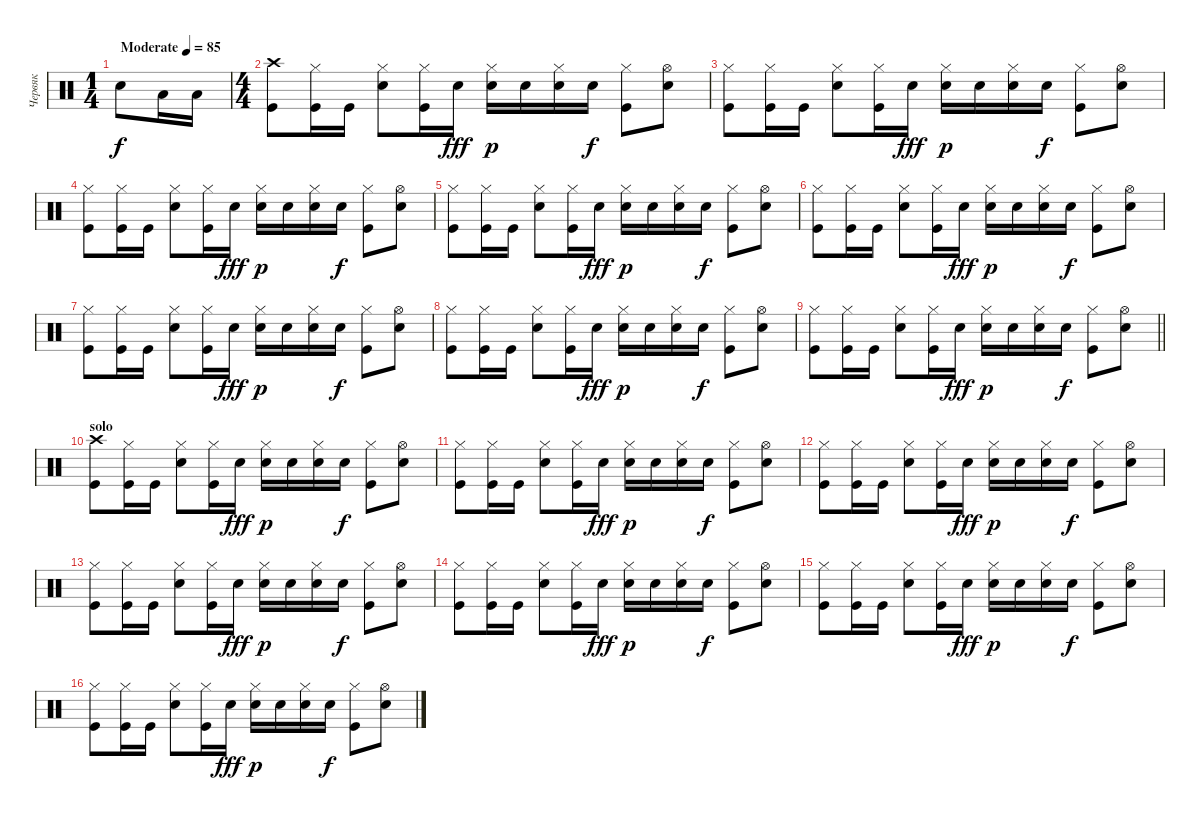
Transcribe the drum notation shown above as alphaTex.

\track ("Червяк" "Червяк") {instrument percussion}
\staff {score}
\articulation defaults
\ts (1 4)
\tempo (85 "Moderate")
\clef neutral
\ks c "Electric Snare (hit)".8{dy f} "Low Tom (hit)".16 "Low Tom (hit)".16
|
\ts (4 4)
("Crash high (hit)" "Kick (hit)").8 ("Hi-Hat (closed)" "Kick (hit)").16 "Kick (hit)".16 ("Hi-Hat (closed)" "Electric Snare (hit)").8 ("Hi-Hat (closed)" "Kick (hit)").16 "Snare (hit) 2".16{dy fff} ("Hi-Hat (closed)" "Snare (hit) 2").16{dy p} "Snare (hit) 2".16 ("Hi-Hat (closed)" "Snare (hit) 2").16 "Snare (hit) 2".16{dy f} ("Hi-Hat (closed)" "Kick (hit)").8 ("Hi-Hat (open)" "Electric Snare (hit)").8 |
("Hi-Hat (closed)" "Kick (hit)").8 ("Hi-Hat (closed)" "Kick (hit)").16 "Kick (hit)".16 ("Hi-Hat (closed)" "Electric Snare (hit)").8 ("Hi-Hat (closed)" "Kick (hit)").16 "Snare (hit) 2".16{dy fff} ("Hi-Hat (closed)" "Snare (hit) 2").16{dy p} "Snare (hit) 2".16 ("Hi-Hat (closed)" "Snare (hit) 2").16 "Snare (hit) 2".16{dy f} ("Hi-Hat (closed)" "Kick (hit)").8 ("Hi-Hat (open)" "Electric Snare (hit)").8 |
("Hi-Hat (closed)" "Kick (hit)").8 ("Hi-Hat (closed)" "Kick (hit)").16 "Kick (hit)".16 ("Hi-Hat (closed)" "Electric Snare (hit)").8 ("Hi-Hat (closed)" "Kick (hit)").16 "Snare (hit) 2".16{dy fff} ("Hi-Hat (closed)" "Snare (hit) 2").16{dy p} "Snare (hit) 2".16 ("Hi-Hat (closed)" "Snare (hit) 2").16 "Snare (hit) 2".16{dy f} ("Hi-Hat (closed)" "Kick (hit)").8 ("Hi-Hat (open)" "Electric Snare (hit)").8 |
("Hi-Hat (closed)" "Kick (hit)").8 ("Hi-Hat (closed)" "Kick (hit)").16 "Kick (hit)".16 ("Hi-Hat (closed)" "Electric Snare (hit)").8 ("Hi-Hat (closed)" "Kick (hit)").16 "Snare (hit) 2".16{dy fff} ("Hi-Hat (closed)" "Snare (hit) 2").16{dy p} "Snare (hit) 2".16 ("Hi-Hat (closed)" "Snare (hit) 2").16 "Snare (hit) 2".16{dy f} ("Hi-Hat (closed)" "Kick (hit)").8 ("Hi-Hat (open)" "Electric Snare (hit)").8 |
("Hi-Hat (closed)" "Kick (hit)").8 ("Hi-Hat (closed)" "Kick (hit)").16 "Kick (hit)".16 ("Hi-Hat (closed)" "Electric Snare (hit)").8 ("Hi-Hat (closed)" "Kick (hit)").16 "Snare (hit) 2".16{dy fff} ("Hi-Hat (closed)" "Snare (hit) 2").16{dy p} "Snare (hit) 2".16 ("Hi-Hat (closed)" "Snare (hit) 2").16 "Snare (hit) 2".16{dy f} ("Hi-Hat (closed)" "Kick (hit)").8 ("Hi-Hat (open)" "Electric Snare (hit)").8 |
("Hi-Hat (closed)" "Kick (hit)").8 ("Hi-Hat (closed)" "Kick (hit)").16 "Kick (hit)".16 ("Hi-Hat (closed)" "Electric Snare (hit)").8 ("Hi-Hat (closed)" "Kick (hit)").16 "Snare (hit) 2".16{dy fff} ("Hi-Hat (closed)" "Snare (hit) 2").16{dy p} "Snare (hit) 2".16 ("Hi-Hat (closed)" "Snare (hit) 2").16 "Snare (hit) 2".16{dy f} ("Hi-Hat (closed)" "Kick (hit)").8 ("Hi-Hat (open)" "Electric Snare (hit)").8 |
("Hi-Hat (closed)" "Kick (hit)").8 ("Hi-Hat (closed)" "Kick (hit)").16 "Kick (hit)".16 ("Hi-Hat (closed)" "Electric Snare (hit)").8 ("Hi-Hat (closed)" "Kick (hit)").16 "Snare (hit) 2".16{dy fff} ("Hi-Hat (closed)" "Snare (hit) 2").16{dy p} "Snare (hit) 2".16 ("Hi-Hat (closed)" "Snare (hit) 2").16 "Snare (hit) 2".16{dy f} ("Hi-Hat (closed)" "Kick (hit)").8 ("Hi-Hat (open)" "Electric Snare (hit)").8 |
\barLineRight lightlight
("Hi-Hat (closed)" "Kick (hit)").8 ("Hi-Hat (closed)" "Kick (hit)").16 "Kick (hit)".16 ("Hi-Hat (closed)" "Electric Snare (hit)").8 ("Hi-Hat (closed)" "Kick (hit)").16 "Snare (hit) 2".16{dy fff} ("Hi-Hat (closed)" "Snare (hit) 2").16{dy p} "Snare (hit) 2".16 ("Hi-Hat (closed)" "Snare (hit) 2").16 "Snare (hit) 2".16{dy f} ("Hi-Hat (closed)" "Kick (hit)").8 ("Hi-Hat (open)" "Electric Snare (hit)").8 |
\section ("" "solo")
("Crash high (hit)" "Kick (hit)").8 ("Hi-Hat (closed)" "Kick (hit)").16 "Kick (hit)".16 ("Hi-Hat (closed)" "Electric Snare (hit)").8 ("Hi-Hat (closed)" "Kick (hit)").16 "Snare (hit) 2".16{dy fff} ("Hi-Hat (closed)" "Snare (hit) 2").16{dy p} "Snare (hit) 2".16 ("Hi-Hat (closed)" "Snare (hit) 2").16 "Snare (hit) 2".16{dy f} ("Hi-Hat (closed)" "Kick (hit)").8 ("Hi-Hat (open)" "Electric Snare (hit)").8 |
("Hi-Hat (closed)" "Kick (hit)").8 ("Hi-Hat (closed)" "Kick (hit)").16 "Kick (hit)".16 ("Hi-Hat (closed)" "Electric Snare (hit)").8 ("Hi-Hat (closed)" "Kick (hit)").16 "Snare (hit) 2".16{dy fff} ("Hi-Hat (closed)" "Snare (hit) 2").16{dy p} "Snare (hit) 2".16 ("Hi-Hat (closed)" "Snare (hit) 2").16 "Snare (hit) 2".16{dy f} ("Hi-Hat (closed)" "Kick (hit)").8 ("Hi-Hat (open)" "Electric Snare (hit)").8 |
("Hi-Hat (closed)" "Kick (hit)").8 ("Hi-Hat (closed)" "Kick (hit)").16 "Kick (hit)".16 ("Hi-Hat (closed)" "Electric Snare (hit)").8 ("Hi-Hat (closed)" "Kick (hit)").16 "Snare (hit) 2".16{dy fff} ("Hi-Hat (closed)" "Snare (hit) 2").16{dy p} "Snare (hit) 2".16 ("Hi-Hat (closed)" "Snare (hit) 2").16 "Snare (hit) 2".16{dy f} ("Hi-Hat (closed)" "Kick (hit)").8 ("Hi-Hat (open)" "Electric Snare (hit)").8 |
("Hi-Hat (closed)" "Kick (hit)").8 ("Hi-Hat (closed)" "Kick (hit)").16 "Kick (hit)".16 ("Hi-Hat (closed)" "Electric Snare (hit)").8 ("Hi-Hat (closed)" "Kick (hit)").16 "Snare (hit) 2".16{dy fff} ("Hi-Hat (closed)" "Snare (hit) 2").16{dy p} "Snare (hit) 2".16 ("Hi-Hat (closed)" "Snare (hit) 2").16 "Snare (hit) 2".16{dy f} ("Hi-Hat (closed)" "Kick (hit)").8 ("Hi-Hat (open)" "Electric Snare (hit)").8 |
("Hi-Hat (closed)" "Kick (hit)").8 ("Hi-Hat (closed)" "Kick (hit)").16 "Kick (hit)".16 ("Hi-Hat (closed)" "Electric Snare (hit)").8 ("Hi-Hat (closed)" "Kick (hit)").16 "Snare (hit) 2".16{dy fff} ("Hi-Hat (closed)" "Snare (hit) 2").16{dy p} "Snare (hit) 2".16 ("Hi-Hat (closed)" "Snare (hit) 2").16 "Snare (hit) 2".16{dy f} ("Hi-Hat (closed)" "Kick (hit)").8 ("Hi-Hat (open)" "Electric Snare (hit)").8 |
("Hi-Hat (closed)" "Kick (hit)").8 ("Hi-Hat (closed)" "Kick (hit)").16 "Kick (hit)".16 ("Hi-Hat (closed)" "Electric Snare (hit)").8 ("Hi-Hat (closed)" "Kick (hit)").16 "Snare (hit) 2".16{dy fff} ("Hi-Hat (closed)" "Snare (hit) 2").16{dy p} "Snare (hit) 2".16 ("Hi-Hat (closed)" "Snare (hit) 2").16 "Snare (hit) 2".16{dy f} ("Hi-Hat (closed)" "Kick (hit)").8 ("Hi-Hat (open)" "Electric Snare (hit)").8 |
("Hi-Hat (closed)" "Kick (hit)").8 ("Hi-Hat (closed)" "Kick (hit)").16 "Kick (hit)".16 ("Hi-Hat (closed)" "Electric Snare (hit)").8 ("Hi-Hat (closed)" "Kick (hit)").16 "Snare (hit) 2".16{dy fff} ("Hi-Hat (closed)" "Snare (hit) 2").16{dy p} "Snare (hit) 2".16 ("Hi-Hat (closed)" "Snare (hit) 2").16 "Snare (hit) 2".16{dy f} ("Hi-Hat (closed)" "Kick (hit)").8 ("Hi-Hat (open)" "Electric Snare (hit)").8
